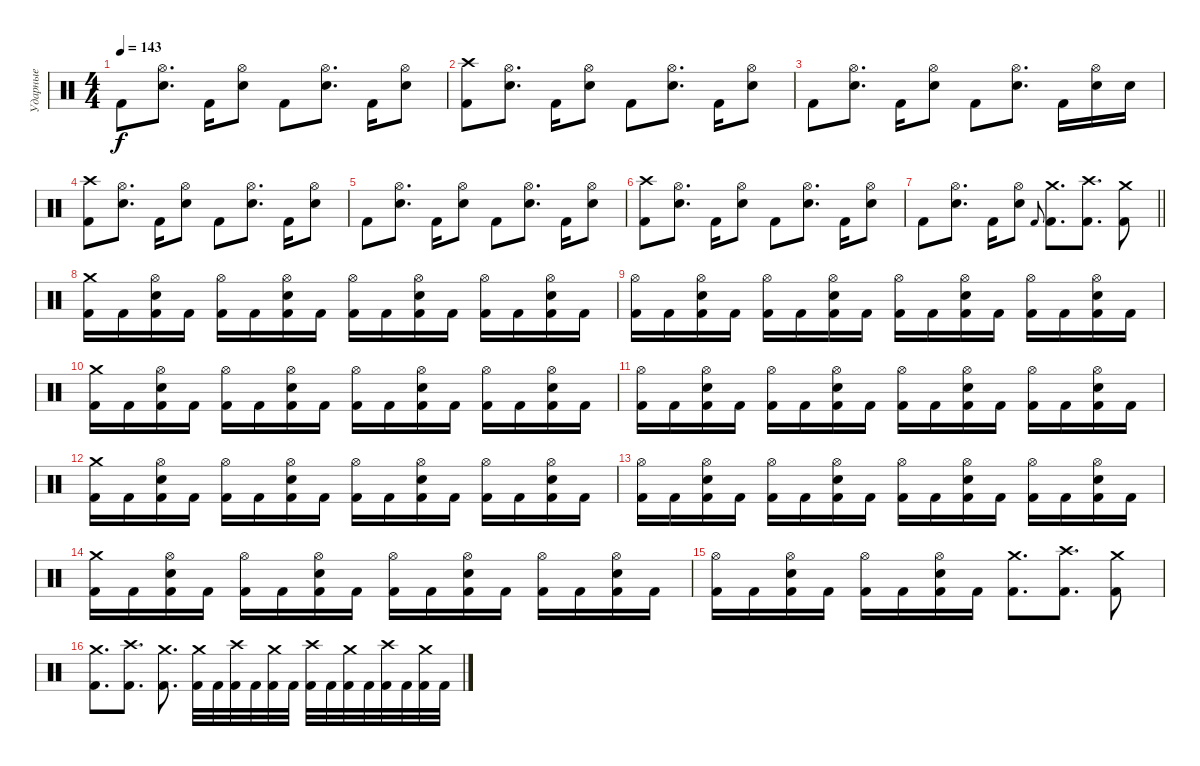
\track ("Ударные" "Ударные") {instrument percussion}
\staff {score}
\articulation defaults
\ts (4 4)
\tempo 143
\clef neutral
\ks c "Kick (hit) 2".8{dy f}
("Hi-Hat (open)" "Electric Snare (hit)").8{d} "Kick (hit) 2".16 ("Hi-Hat (open)" "Electric Snare (hit)").8 "Kick (hit) 2".8 ("Hi-Hat (open)" "Electric Snare (hit)").8{d} "Kick (hit) 2".16 ("Hi-Hat (open)" "Electric Snare (hit)").8 |
("Crash high (hit)" "Kick (hit) 2").8 ("Hi-Hat (open)" "Electric Snare (hit)").8{d} "Kick (hit) 2".16 ("Hi-Hat (open)" "Electric Snare (hit)").8 "Kick (hit) 2".8 ("Hi-Hat (open)" "Electric Snare (hit)").8{d} "Kick (hit) 2".16 ("Hi-Hat (open)" "Electric Snare (hit)").8 |
"Kick (hit) 2".8 ("Hi-Hat (open)" "Electric Snare (hit)").8{d} "Kick (hit) 2".16 ("Hi-Hat (open)" "Electric Snare (hit)").8 "Kick (hit) 2".8 ("Hi-Hat (open)" "Electric Snare (hit)").8{d} "Kick (hit) 2".16 ("Hi-Hat (open)" "Electric Snare (hit)").16 "Snare (hit) 2".16 |
("Crash high (hit)" "Kick (hit) 2").8 ("Hi-Hat (open)" "Electric Snare (hit)").8{d} "Kick (hit) 2".16 ("Hi-Hat (open)" "Electric Snare (hit)").8 "Kick (hit) 2".8 ("Hi-Hat (open)" "Electric Snare (hit)").8{d} "Kick (hit) 2".16 ("Hi-Hat (open)" "Electric Snare (hit)").8 |
"Kick (hit) 2".8 ("Hi-Hat (open)" "Electric Snare (hit)").8{d} "Kick (hit) 2".16 ("Hi-Hat (open)" "Electric Snare (hit)").8 "Kick (hit) 2".8 ("Hi-Hat (open)" "Electric Snare (hit)").8{d} "Kick (hit) 2".16 ("Hi-Hat (open)" "Electric Snare (hit)").8 |
("Crash high (hit)" "Kick (hit) 2").8 ("Hi-Hat (open)" "Electric Snare (hit)").8{d} "Kick (hit) 2".16 ("Hi-Hat (open)" "Electric Snare (hit)").8 "Kick (hit) 2".8 ("Hi-Hat (open)" "Electric Snare (hit)").8{d} "Kick (hit) 2".16 ("Hi-Hat (open)" "Electric Snare (hit)").8 |
\barLineRight lightlight "Kick (hit) 2".8
("Hi-Hat (open)" "Electric Snare (hit)").8{d} "Kick (hit) 2".16 ("Hi-Hat (open)" "Electric Snare (hit)").8 "Kick (hit) 2".8{gr onbeat} ("Crash medium (hit)" "Kick (hit) 2").8{d} ("Crash high (hit)" "Kick (hit) 2").8{d} ("Crash medium (hit)" "Kick (hit) 2").8 |
("Crash medium (hit)" "Kick (hit) 2").16 "Kick (hit) 2".16 ("Hi-Hat (open)" "Snare (hit) 2" "Kick (hit) 2").16 "Kick (hit) 2".16 ("Hi-Hat (open)" "Kick (hit) 2").16 "Kick (hit) 2".16 ("Hi-Hat (open)" "Snare (hit) 2" "Kick (hit) 2").16 "Kick (hit) 2".16 ("Hi-Hat (open)" "Kick (hit) 2").16 "Kick (hit) 2".16 ("Hi-Hat (open)" "Snare (hit) 2" "Kick (hit) 2").16 "Kick (hit) 2".16 ("Hi-Hat (open)" "Kick (hit) 2").16 "Kick (hit) 2".16 ("Hi-Hat (open)" "Snare (hit) 2" "Kick (hit) 2").16 "Kick (hit) 2".16 |
("Hi-Hat (open)" "Kick (hit) 2").16 "Kick (hit) 2".16 ("Hi-Hat (open)" "Snare (hit) 2" "Kick (hit) 2").16 "Kick (hit) 2".16 ("Hi-Hat (open)" "Kick (hit) 2").16 "Kick (hit) 2".16 ("Hi-Hat (open)" "Snare (hit) 2" "Kick (hit) 2").16 "Kick (hit) 2".16 ("Hi-Hat (open)" "Kick (hit) 2").16 "Kick (hit) 2".16 ("Hi-Hat (open)" "Snare (hit) 2" "Kick (hit) 2").16 "Kick (hit) 2".16 ("Hi-Hat (open)" "Kick (hit) 2").16 "Kick (hit) 2".16 ("Hi-Hat (open)" "Snare (hit) 2" "Kick (hit) 2").16 "Kick (hit) 2".16 |
("Crash medium (hit)" "Kick (hit) 2").16 "Kick (hit) 2".16 ("Hi-Hat (open)" "Snare (hit) 2" "Kick (hit) 2").16 "Kick (hit) 2".16 ("Hi-Hat (open)" "Kick (hit) 2").16 "Kick (hit) 2".16 ("Hi-Hat (open)" "Snare (hit) 2" "Kick (hit) 2").16 "Kick (hit) 2".16 ("Hi-Hat (open)" "Kick (hit) 2").16 "Kick (hit) 2".16 ("Hi-Hat (open)" "Snare (hit) 2" "Kick (hit) 2").16 "Kick (hit) 2".16 ("Hi-Hat (open)" "Kick (hit) 2").16 "Kick (hit) 2".16 ("Hi-Hat (open)" "Snare (hit) 2" "Kick (hit) 2").16 "Kick (hit) 2".16 |
("Hi-Hat (open)" "Kick (hit) 2").16 "Kick (hit) 2".16 ("Hi-Hat (open)" "Snare (hit) 2" "Kick (hit) 2").16 "Kick (hit) 2".16 ("Hi-Hat (open)" "Kick (hit) 2").16 "Kick (hit) 2".16 ("Hi-Hat (open)" "Snare (hit) 2" "Kick (hit) 2").16 "Kick (hit) 2".16 ("Hi-Hat (open)" "Kick (hit) 2").16 "Kick (hit) 2".16 ("Hi-Hat (open)" "Snare (hit) 2" "Kick (hit) 2").16 "Kick (hit) 2".16 ("Hi-Hat (open)" "Kick (hit) 2").16 "Kick (hit) 2".16 ("Hi-Hat (open)" "Snare (hit) 2" "Kick (hit) 2").16 "Kick (hit) 2".16 |
("Crash medium (hit)" "Kick (hit) 2").16 "Kick (hit) 2".16 ("Hi-Hat (open)" "Snare (hit) 2" "Kick (hit) 2").16 "Kick (hit) 2".16 ("Hi-Hat (open)" "Kick (hit) 2").16 "Kick (hit) 2".16 ("Hi-Hat (open)" "Snare (hit) 2" "Kick (hit) 2").16 "Kick (hit) 2".16 ("Hi-Hat (open)" "Kick (hit) 2").16 "Kick (hit) 2".16 ("Hi-Hat (open)" "Snare (hit) 2" "Kick (hit) 2").16 "Kick (hit) 2".16 ("Hi-Hat (open)" "Kick (hit) 2").16 "Kick (hit) 2".16 ("Hi-Hat (open)" "Snare (hit) 2" "Kick (hit) 2").16 "Kick (hit) 2".16 |
("Hi-Hat (open)" "Kick (hit) 2").16 "Kick (hit) 2".16 ("Hi-Hat (open)" "Snare (hit) 2" "Kick (hit) 2").16 "Kick (hit) 2".16 ("Hi-Hat (open)" "Kick (hit) 2").16 "Kick (hit) 2".16 ("Hi-Hat (open)" "Snare (hit) 2" "Kick (hit) 2").16 "Kick (hit) 2".16 ("Hi-Hat (open)" "Kick (hit) 2").16 "Kick (hit) 2".16 ("Hi-Hat (open)" "Snare (hit) 2" "Kick (hit) 2").16 "Kick (hit) 2".16 ("Hi-Hat (open)" "Kick (hit) 2").16 "Kick (hit) 2".16 ("Hi-Hat (open)" "Snare (hit) 2" "Kick (hit) 2").16 "Kick (hit) 2".16 |
("Crash medium (hit)" "Kick (hit) 2").16 "Kick (hit) 2".16 ("Hi-Hat (open)" "Snare (hit) 2" "Kick (hit) 2").16 "Kick (hit) 2".16 ("Hi-Hat (open)" "Kick (hit) 2").16 "Kick (hit) 2".16 ("Hi-Hat (open)" "Snare (hit) 2" "Kick (hit) 2").16 "Kick (hit) 2".16 ("Hi-Hat (open)" "Kick (hit) 2").16 "Kick (hit) 2".16 ("Hi-Hat (open)" "Snare (hit) 2" "Kick (hit) 2").16 "Kick (hit) 2".16 ("Hi-Hat (open)" "Kick (hit) 2").16 "Kick (hit) 2".16 ("Hi-Hat (open)" "Snare (hit) 2" "Kick (hit) 2").16 "Kick (hit) 2".16 |
("Hi-Hat (open)" "Kick (hit) 2").16 "Kick (hit) 2".16 ("Hi-Hat (open)" "Snare (hit) 2" "Kick (hit) 2").16 "Kick (hit) 2".16 ("Hi-Hat (open)" "Kick (hit) 2").16 "Kick (hit) 2".16 ("Hi-Hat (open)" "Snare (hit) 2" "Kick (hit) 2").16 "Kick (hit) 2".16 ("Crash medium (hit)" "Kick (hit) 2").8{d} ("Kick (hit) 2" "Crash high (hit)").8{d} ("Kick (hit) 2" "Crash medium (hit)").8 |
("Crash medium (hit)" "Kick (hit) 2").8{d} ("Kick (hit) 2" "Crash high (hit)").8{d} ("Kick (hit) 2" "Crash medium (hit)").8{d} ("Kick (hit) 2" "Crash medium (hit)").32 "Kick (hit) 2".32 ("Kick (hit) 2" "Crash high (hit)").32 "Kick (hit) 2".32 ("Kick (hit) 2" "Crash medium (hit)").32 "Kick (hit) 2".32 ("Kick (hit) 2" "Crash high (hit)").32 "Kick (hit) 2".32 ("Kick (hit) 2" "Crash medium (hit)").32 "Kick (hit) 2".32 ("Kick (hit) 2" "Crash high (hit)").32 "Kick (hit) 2".32 ("Kick (hit) 2" "Crash medium (hit)").32 "Kick (hit) 2".32
